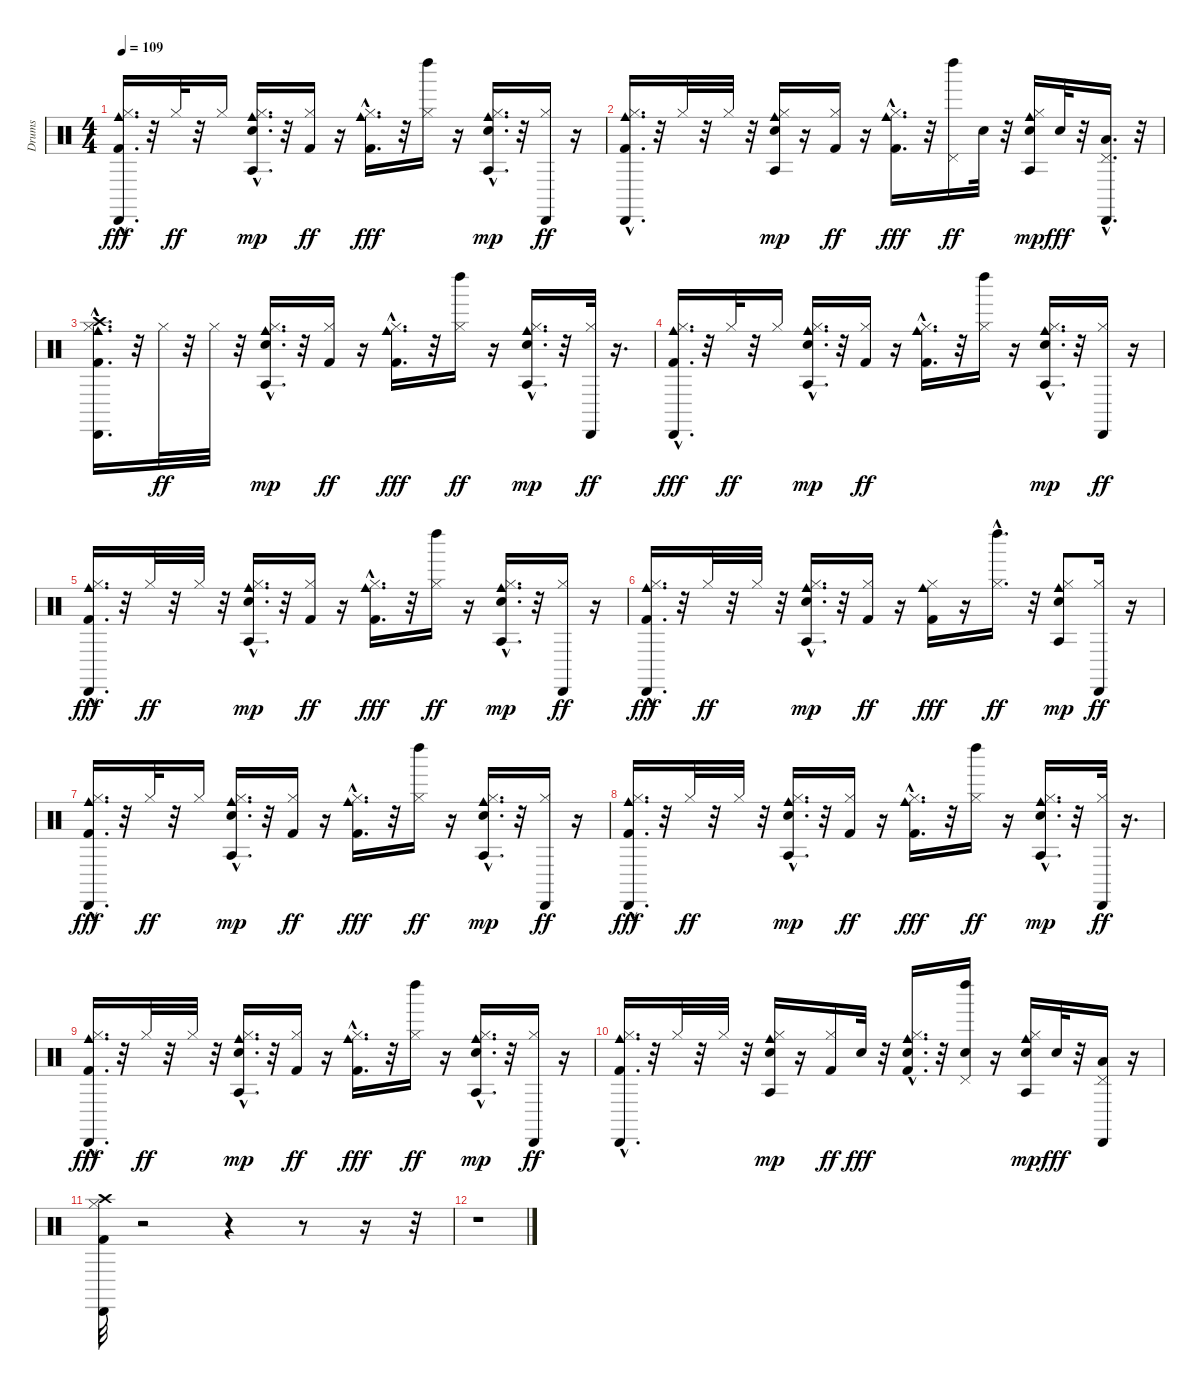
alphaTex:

\track ("Drums   " "Drums   ") {instrument percussion}
\staff {score}
\articulation defaults
\ts (4 4)
\tempo 109
\clef neutral
\ks c
("Kick (hit) 2"{hac} "Hi-Hat (closed)"{hac} "Cowbell medium (hit)"{hac} "Cabasa (hit)"{hac}).16{d dy fff} r.32 "Hi-Hat (closed)".32{dy ff} r.32 "Hi-Hat (closed)".16 ("Snare (hit) 2"{hac} "Hi-Hat (closed)"{hac} "Cowbell medium (hit)"{hac} "Agogo tow (hit)"{hac}).16{d dy mp} r.32 ("Kick (hit) 2" "Hi-Hat (closed)").16{dy ff} r.16 ("Kick (hit) 2"{hac} "Hi-Hat (closed)"{hac} "Cowbell medium (hit)"{hac}).16{d dy fff} r.32 ("Hi-Hat (closed)" "Left Maraca (hit)").16 r.16 ("Cowbell medium (hit)"{hac} "Snare (hit) 2"{hac} "Hi-Hat (closed)"{hac} "Agogo tow (hit)"{hac}).16{d dy mp} r.32 ("Hi-Hat (closed)" "Cabasa (hit)").16{dy ff} r.16 |
("Kick (hit) 2"{hac} "Cowbell medium (hit)"{hac} "Hi-Hat (closed)"{hac} "Cabasa (hit)"{hac}).16{d} r.32 "Hi-Hat (closed)".32 r.32 "Hi-Hat (closed)".32 r.32 ("Snare (hit) 2" "Hi-Hat (closed)" "Cowbell medium (hit)" "Agogo tow (hit)").16{dy mp} r.16 ("Kick (hit) 2" "Hi-Hat (closed)").16{dy ff} r.16 ("Kick (hit) 2"{hac} "Hi-Hat (closed)"{hac} "Cowbell medium (hit)"{hac}).16{d dy fff} r.32 ("Pedal Hi-Hat (hit)" "Left Maraca (hit)").16{dy ff} "Snare (hit) 2".32 r.32 ("Snare (hit) 2" "Hi-Hat (closed)" "Cowbell medium (hit)" "Agogo tow (hit)").16{dy mp} "Snare (hit) 2".32{dy fff} r.32 ("Pedal Hi-Hat (hit)"{hac} "Low Tom (hit)"{hac} "Cabasa (hit)"{hac}).16{d} r.32 |
("Kick (hit) 2"{hac} "Cowbell medium (hit)"{hac} "Hi-Hat (closed)"{hac} "Cabasa (hit)"{hac} "Crash high (hit)"{hac}).16{d} r.32 "Hi-Hat (closed)".32{dy ff} r.32 "Hi-Hat (closed)".32 r.32 ("Cowbell medium (hit)"{hac} "Snare (hit) 2"{hac} "Hi-Hat (closed)"{hac} "Agogo tow (hit)"{hac}).16{d dy mp} r.32 ("Kick (hit) 2" "Hi-Hat (closed)").16{dy ff} r.16 ("Kick (hit) 2"{hac} "Cowbell medium (hit)"{hac} "Hi-Hat (closed)"{hac}).16{d dy fff} r.32 ("Hi-Hat (closed)" "Left Maraca (hit)").16{dy ff} r.16 ("Snare (hit) 2"{hac} "Hi-Hat (closed)"{hac} "Cowbell medium (hit)"{hac} "Agogo tow (hit)"{hac}).16{d dy mp} r.32 ("Hi-Hat (closed)" "Cabasa (hit)").32{dy ff} r.16{d} |
("Kick (hit) 2"{hac} "Hi-Hat (closed)"{hac} "Cowbell medium (hit)"{hac} "Cabasa (hit)"{hac}).16{d dy fff} r.32 "Hi-Hat (closed)".32{dy ff} r.32 "Hi-Hat (closed)".16 ("Snare (hit) 2"{hac} "Hi-Hat (closed)"{hac} "Cowbell medium (hit)"{hac} "Agogo tow (hit)"{hac}).16{d dy mp} r.32 ("Kick (hit) 2" "Hi-Hat (closed)").16{dy ff} r.16 ("Kick (hit) 2"{hac} "Cowbell medium (hit)"{hac} "Hi-Hat (closed)"{hac}).16{d} r.32 ("Hi-Hat (closed)" "Left Maraca (hit)").16 r.16 ("Cowbell medium (hit)"{hac} "Snare (hit) 2"{hac} "Hi-Hat (closed)"{hac} "Agogo tow (hit)"{hac}).16{d dy mp} r.32 ("Hi-Hat (closed)" "Cabasa (hit)").16{dy ff} r.16 |
("Cowbell medium (hit)"{hac} "Kick (hit) 2"{hac} "Hi-Hat (closed)"{hac} "Cabasa (hit)"{hac}).16{d dy fff} r.32 "Hi-Hat (closed)".32{dy ff} r.32 "Hi-Hat (closed)".32 r.32 ("Snare (hit) 2"{hac} "Hi-Hat (closed)"{hac} "Cowbell medium (hit)"{hac} "Agogo tow (hit)"{hac}).16{d dy mp} r.32 ("Kick (hit) 2" "Hi-Hat (closed)").16{dy ff} r.16 ("Kick (hit) 2"{hac} "Hi-Hat (closed)"{hac} "Cowbell medium (hit)"{hac}).16{d dy fff} r.32 ("Hi-Hat (closed)" "Left Maraca (hit)").16{dy ff} r.16 ("Snare (hit) 2"{hac} "Cowbell medium (hit)"{hac} "Hi-Hat (closed)"{hac} "Agogo tow (hit)"{hac}).16{d dy mp} r.32 ("Hi-Hat (closed)" "Cabasa (hit)").16{dy ff} r.16 |
("Cowbell medium (hit)"{hac} "Kick (hit) 2"{hac} "Hi-Hat (closed)"{hac} "Cabasa (hit)"{hac}).16{d dy fff} r.32 "Hi-Hat (closed)".32{dy ff} r.32 "Hi-Hat (closed)".32 r.32 ("Snare (hit) 2"{hac} "Hi-Hat (closed)"{hac} "Cowbell medium (hit)"{hac} "Agogo tow (hit)"{hac}).16{d dy mp} r.32 ("Kick (hit) 2" "Hi-Hat (closed)").16{dy ff} r.16 ("Cowbell medium (hit)" "Kick (hit) 2" "Hi-Hat (closed)").16{dy fff} r.16 ("Hi-Hat (closed)"{hac} "Left Maraca (hit)"{hac}).16{d dy ff} r.32 ("Snare (hit) 2" "Hi-Hat (closed)" "Cowbell medium (hit)" "Agogo tow (hit)").8{dy mp} ("Hi-Hat (closed)" "Cabasa (hit)").16{dy ff} r.16 |
("Kick (hit) 2"{hac} "Hi-Hat (closed)"{hac} "Cowbell medium (hit)"{hac} "Cabasa (hit)"{hac}).16{d dy fff} r.32 "Hi-Hat (closed)".32{dy ff} r.32 "Hi-Hat (closed)".16 ("Snare (hit) 2"{hac} "Hi-Hat (closed)"{hac} "Cowbell medium (hit)"{hac} "Agogo tow (hit)"{hac}).16{d dy mp} r.32 ("Kick (hit) 2" "Hi-Hat (closed)").16{dy ff} r.16 ("Kick (hit) 2"{hac} "Cowbell medium (hit)"{hac} "Hi-Hat (closed)"{hac}).16{d dy fff} r.32 ("Hi-Hat (closed)" "Left Maraca (hit)").16{dy ff} r.16 ("Cowbell medium (hit)"{hac} "Snare (hit) 2"{hac} "Hi-Hat (closed)"{hac} "Agogo tow (hit)"{hac}).16{d dy mp} r.32 ("Hi-Hat (closed)" "Cabasa (hit)").16{dy ff} r.16 |
("Kick (hit) 2"{hac} "Cowbell medium (hit)"{hac} "Hi-Hat (closed)"{hac} "Cabasa (hit)"{hac}).16{d dy fff} r.32 "Hi-Hat (closed)".32{dy ff} r.32 "Hi-Hat (closed)".32 r.32 ("Snare (hit) 2"{hac} "Hi-Hat (closed)"{hac} "Cowbell medium (hit)"{hac} "Agogo tow (hit)"{hac}).16{d dy mp} r.32 ("Kick (hit) 2" "Hi-Hat (closed)").16{dy ff} r.16 ("Kick (hit) 2"{hac} "Hi-Hat (closed)"{hac} "Cowbell medium (hit)"{hac}).16{d dy fff} r.32 ("Hi-Hat (closed)" "Left Maraca (hit)").16{dy ff} r.16 ("Snare (hit) 2"{hac} "Hi-Hat (closed)"{hac} "Cowbell medium (hit)"{hac} "Agogo tow (hit)"{hac}).16{d dy mp} r.32 ("Hi-Hat (closed)" "Cabasa (hit)").32{dy ff} r.16{d} |
("Kick (hit) 2"{hac} "Cowbell medium (hit)"{hac} "Hi-Hat (closed)"{hac} "Cabasa (hit)"{hac}).16{d dy fff} r.32 "Hi-Hat (closed)".32{dy ff} r.32 "Hi-Hat (closed)".32 r.32 ("Snare (hit) 2"{hac} "Hi-Hat (closed)"{hac} "Cowbell medium (hit)"{hac} "Agogo tow (hit)"{hac}).16{d dy mp} r.32 ("Kick (hit) 2" "Hi-Hat (closed)").16{dy ff} r.16 ("Kick (hit) 2"{hac} "Cowbell medium (hit)"{hac} "Hi-Hat (closed)"{hac}).16{d dy fff} r.32 ("Hi-Hat (closed)" "Left Maraca (hit)").16{dy ff} r.16 ("Snare (hit) 2"{hac} "Hi-Hat (closed)"{hac} "Cowbell medium (hit)"{hac} "Agogo tow (hit)"{hac}).16{d dy mp} r.32 ("Hi-Hat (closed)" "Cabasa (hit)").16{dy ff} r.16 |
("Kick (hit) 2"{hac} "Hi-Hat (closed)"{hac} "Cowbell medium (hit)"{hac} "Cabasa (hit)"{hac}).16{d} r.32 "Hi-Hat (closed)".32 r.32 "Hi-Hat (closed)".32 r.32 ("Snare (hit) 2" "Hi-Hat (closed)" "Cowbell medium (hit)" "Agogo tow (hit)").16{dy mp} r.16 ("Kick (hit) 2" "Hi-Hat (closed)").16{dy ff} "Snare (hit) 2".32{dy fff} r.32 ("Kick (hit) 2"{hac} "Cowbell medium (hit)"{hac} "Snare (hit) 2"{hac} "Hi-Hat (closed)"{hac}).16{d} r.32 ("Snare (hit) 2" "Pedal Hi-Hat (hit)" "Left Maraca (hit)").16 r.16 ("Cowbell medium (hit)" "Snare (hit) 2" "Hi-Hat (closed)" "Agogo tow (hit)").16{dy mp} "Snare (hit) 2".32{dy fff} r.32 ("Pedal Hi-Hat (hit)" "Low Tom (hit)" "Cabasa (hit)").16 r.16 |
("Kick (hit) 2" "Hi-Hat (closed)" "Crash high (hit)" "Cabasa (hit)").32 r.2 r.4 r.8 r.16 r.32 |
r.1
